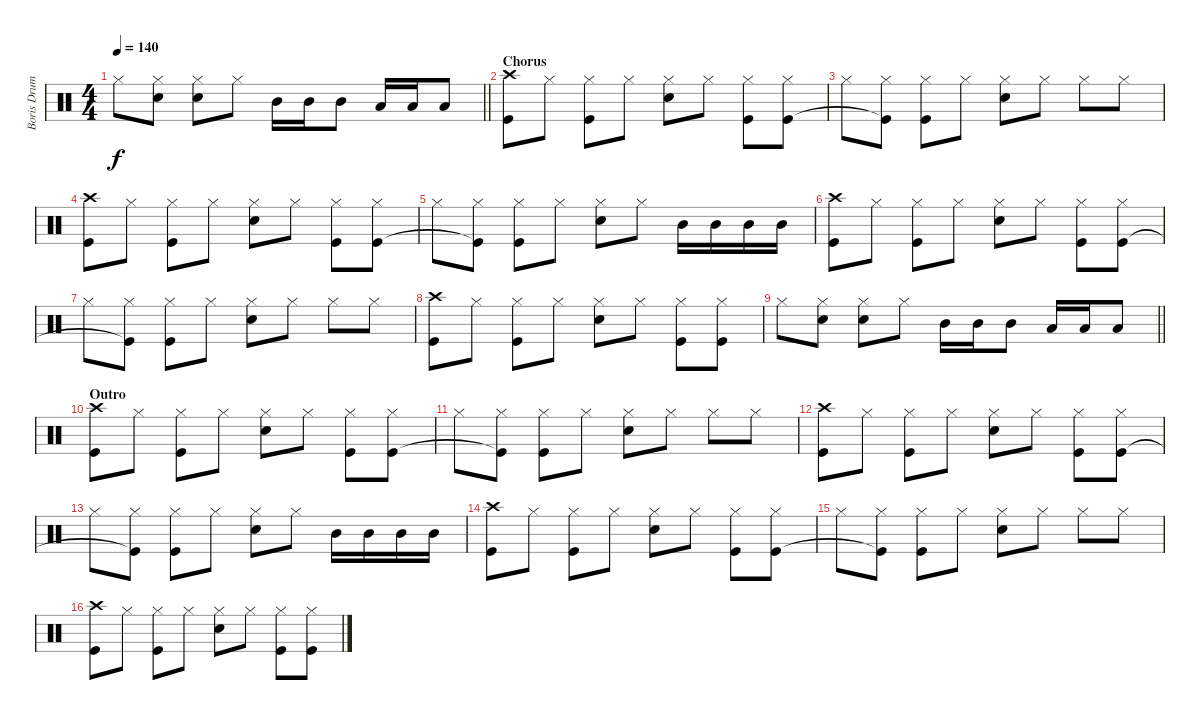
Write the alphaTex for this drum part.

\track ("Boris Drums" "Boris Drum") {instrument percussion}
\staff {score}
\articulation defaults
\ts (4 4)
\tempo 140
\clef neutral
\barLineRight lightlight
\ks c "Hi-Hat (closed)".8{dy f}
("Hi-Hat (closed)" "Electric Snare (hit)").8 ("Hi-Hat (closed)" "Electric Snare (hit)").8 "Hi-Hat (closed)".8 "Mid Tom (hit)".16 "Mid Tom (hit)".16 "Mid Tom (hit)".8 "Low Tom (hit)".16 "Low Tom (hit)".16 "Low Tom (hit)".8 |
\section ("" "Chorus")
("Crash high (hit)" "Kick (hit)").8 "Hi-Hat (closed)".8 ("Hi-Hat (closed)" "Kick (hit)").8 "Hi-Hat (closed)".8 ("Hi-Hat (closed)" "Electric Snare (hit)").8 "Hi-Hat (closed)".8 ("Hi-Hat (closed)" "Kick (hit)").8 ("Hi-Hat (closed)" "Kick (hit)").8 |
"Hi-Hat (closed)".8 ("Hi-Hat (closed)" "Kick (hit)"{t}).8 ("Hi-Hat (closed)" "Kick (hit)").8 "Hi-Hat (closed)".8 ("Hi-Hat (closed)" "Electric Snare (hit)").8 "Hi-Hat (closed)".8 "Hi-Hat (closed)".8 "Hi-Hat (closed)".8 |
("Crash high (hit)" "Kick (hit)").8 "Hi-Hat (closed)".8 ("Hi-Hat (closed)" "Kick (hit)").8 "Hi-Hat (closed)".8 ("Hi-Hat (closed)" "Electric Snare (hit)").8 "Hi-Hat (closed)".8 ("Hi-Hat (closed)" "Kick (hit)").8 ("Hi-Hat (closed)" "Kick (hit)").8 |
"Hi-Hat (closed)".8 ("Hi-Hat (closed)" "Kick (hit)"{t}).8 ("Hi-Hat (closed)" "Kick (hit)").8 "Hi-Hat (closed)".8 ("Hi-Hat (closed)" "Electric Snare (hit)").8 "Hi-Hat (closed)".8 "Mid Tom (hit)".16 "Mid Tom (hit)".16 "Mid Tom (hit)".16 "Mid Tom (hit)".16 |
("Crash high (hit)" "Kick (hit)").8 "Hi-Hat (closed)".8 ("Hi-Hat (closed)" "Kick (hit)").8 "Hi-Hat (closed)".8 ("Hi-Hat (closed)" "Electric Snare (hit)").8 "Hi-Hat (closed)".8 ("Hi-Hat (closed)" "Kick (hit)").8 ("Hi-Hat (closed)" "Kick (hit)").8 |
"Hi-Hat (closed)".8 ("Hi-Hat (closed)" "Kick (hit)"{t}).8 ("Hi-Hat (closed)" "Kick (hit)").8 "Hi-Hat (closed)".8 ("Hi-Hat (closed)" "Electric Snare (hit)").8 "Hi-Hat (closed)".8 "Hi-Hat (closed)".8 "Hi-Hat (closed)".8 |
("Crash high (hit)" "Kick (hit)").8 "Hi-Hat (closed)".8 ("Hi-Hat (closed)" "Kick (hit)").8 "Hi-Hat (closed)".8 ("Hi-Hat (closed)" "Electric Snare (hit)").8 "Hi-Hat (closed)".8 ("Hi-Hat (closed)" "Kick (hit)").8 ("Hi-Hat (closed)" "Kick (hit)").8 |
\barLineRight lightlight "Hi-Hat (closed)".8
("Hi-Hat (closed)" "Electric Snare (hit)").8 ("Hi-Hat (closed)" "Electric Snare (hit)").8 "Hi-Hat (closed)".8 "Mid Tom (hit)".16 "Mid Tom (hit)".16 "Mid Tom (hit)".8 "Low Tom (hit)".16 "Low Tom (hit)".16 "Low Tom (hit)".8 |
\section ("" "Outro")
("Crash high (hit)" "Kick (hit)").8 "Hi-Hat (closed)".8 ("Hi-Hat (closed)" "Kick (hit)").8 "Hi-Hat (closed)".8 ("Hi-Hat (closed)" "Electric Snare (hit)").8 "Hi-Hat (closed)".8 ("Hi-Hat (closed)" "Kick (hit)").8 ("Hi-Hat (closed)" "Kick (hit)").8 |
"Hi-Hat (closed)".8 ("Hi-Hat (closed)" "Kick (hit)"{t}).8 ("Hi-Hat (closed)" "Kick (hit)").8 "Hi-Hat (closed)".8 ("Hi-Hat (closed)" "Electric Snare (hit)").8 "Hi-Hat (closed)".8 "Hi-Hat (closed)".8 "Hi-Hat (closed)".8 |
("Crash high (hit)" "Kick (hit)").8 "Hi-Hat (closed)".8 ("Hi-Hat (closed)" "Kick (hit)").8 "Hi-Hat (closed)".8 ("Hi-Hat (closed)" "Electric Snare (hit)").8 "Hi-Hat (closed)".8 ("Hi-Hat (closed)" "Kick (hit)").8 ("Hi-Hat (closed)" "Kick (hit)").8 |
"Hi-Hat (closed)".8 ("Hi-Hat (closed)" "Kick (hit)"{t}).8 ("Hi-Hat (closed)" "Kick (hit)").8 "Hi-Hat (closed)".8 ("Hi-Hat (closed)" "Electric Snare (hit)").8 "Hi-Hat (closed)".8 "Mid Tom (hit)".16 "Mid Tom (hit)".16 "Mid Tom (hit)".16 "Mid Tom (hit)".16 |
("Crash high (hit)" "Kick (hit)").8 "Hi-Hat (closed)".8 ("Hi-Hat (closed)" "Kick (hit)").8 "Hi-Hat (closed)".8 ("Hi-Hat (closed)" "Electric Snare (hit)").8 "Hi-Hat (closed)".8 ("Hi-Hat (closed)" "Kick (hit)").8 ("Hi-Hat (closed)" "Kick (hit)").8 |
"Hi-Hat (closed)".8 ("Hi-Hat (closed)" "Kick (hit)"{t}).8 ("Hi-Hat (closed)" "Kick (hit)").8 "Hi-Hat (closed)".8 ("Hi-Hat (closed)" "Electric Snare (hit)").8 "Hi-Hat (closed)".8 "Hi-Hat (closed)".8 "Hi-Hat (closed)".8 |
("Crash high (hit)" "Kick (hit)").8 "Hi-Hat (closed)".8 ("Hi-Hat (closed)" "Kick (hit)").8 "Hi-Hat (closed)".8 ("Hi-Hat (closed)" "Electric Snare (hit)").8 "Hi-Hat (closed)".8 ("Hi-Hat (closed)" "Kick (hit)").8 ("Hi-Hat (closed)" "Kick (hit)").8
